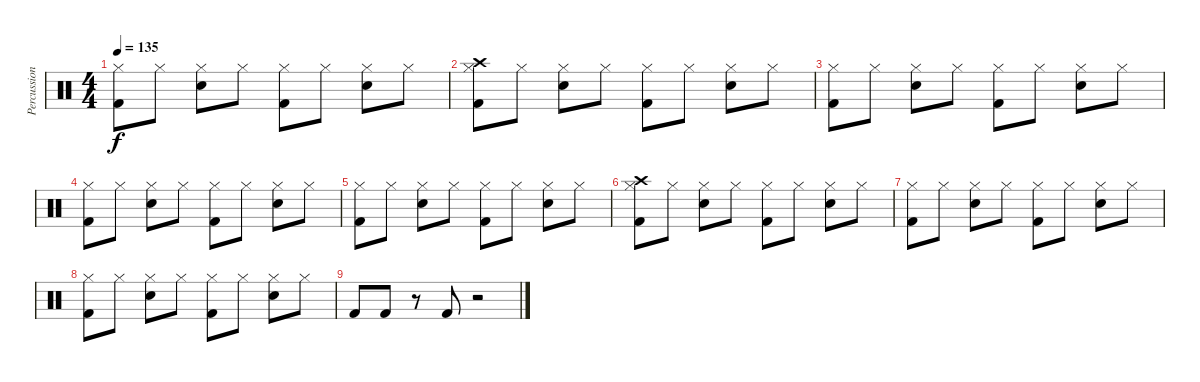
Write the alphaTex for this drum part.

\track ("Percussion" "Percussion") {instrument percussion}
\staff {score}
\articulation defaults
\ts (4 4)
\tempo 135
\clef neutral
\ks c
("Hi-Hat (closed)" "Kick (hit) 2").8{dy f} "Hi-Hat (closed)".8 ("Hi-Hat (closed)" "Snare (hit) 2").8 "Hi-Hat (closed)".8 ("Hi-Hat (closed)" "Kick (hit) 2").8 "Hi-Hat (closed)".8 ("Hi-Hat (closed)" "Snare (hit) 2").8 "Hi-Hat (closed)".8 |
("Crash high (hit)" "Hi-Hat (closed)" "Kick (hit) 2").8 "Hi-Hat (closed)".8 ("Hi-Hat (closed)" "Snare (hit) 2").8 "Hi-Hat (closed)".8 ("Hi-Hat (closed)" "Kick (hit) 2").8 "Hi-Hat (closed)".8 ("Hi-Hat (closed)" "Snare (hit) 2").8 "Hi-Hat (closed)".8 |
("Hi-Hat (closed)" "Kick (hit) 2").8 "Hi-Hat (closed)".8 ("Hi-Hat (closed)" "Snare (hit) 2").8 "Hi-Hat (closed)".8 ("Hi-Hat (closed)" "Kick (hit) 2").8 "Hi-Hat (closed)".8 ("Hi-Hat (closed)" "Snare (hit) 2").8 "Hi-Hat (closed)".8 |
("Hi-Hat (closed)" "Kick (hit) 2").8 "Hi-Hat (closed)".8 ("Hi-Hat (closed)" "Snare (hit) 2").8 "Hi-Hat (closed)".8 ("Hi-Hat (closed)" "Kick (hit) 2").8 "Hi-Hat (closed)".8 ("Hi-Hat (closed)" "Snare (hit) 2").8 "Hi-Hat (closed)".8 |
("Hi-Hat (closed)" "Kick (hit) 2").8 "Hi-Hat (closed)".8 ("Hi-Hat (closed)" "Snare (hit) 2").8 "Hi-Hat (closed)".8 ("Hi-Hat (closed)" "Kick (hit) 2").8 "Hi-Hat (closed)".8 ("Hi-Hat (closed)" "Snare (hit) 2").8 "Hi-Hat (closed)".8 |
("Crash high (hit)" "Hi-Hat (closed)" "Kick (hit) 2").8 "Hi-Hat (closed)".8 ("Hi-Hat (closed)" "Snare (hit) 2").8 "Hi-Hat (closed)".8 ("Hi-Hat (closed)" "Kick (hit) 2").8 "Hi-Hat (closed)".8 ("Hi-Hat (closed)" "Snare (hit) 2").8 "Hi-Hat (closed)".8 |
("Hi-Hat (closed)" "Kick (hit) 2").8 "Hi-Hat (closed)".8 ("Hi-Hat (closed)" "Snare (hit) 2").8 "Hi-Hat (closed)".8 ("Hi-Hat (closed)" "Kick (hit) 2").8 "Hi-Hat (closed)".8 ("Hi-Hat (closed)" "Snare (hit) 2").8 "Hi-Hat (closed)".8 |
("Hi-Hat (closed)" "Kick (hit) 2").8 "Hi-Hat (closed)".8 ("Hi-Hat (closed)" "Snare (hit) 2").8 "Hi-Hat (closed)".8 ("Hi-Hat (closed)" "Kick (hit) 2").8 "Hi-Hat (closed)".8 ("Hi-Hat (closed)" "Snare (hit) 2").8 "Hi-Hat (closed)".8 |
"Kick (hit) 2".8 "Kick (hit) 2".8 r.8 "Kick (hit) 2".8 r.2
